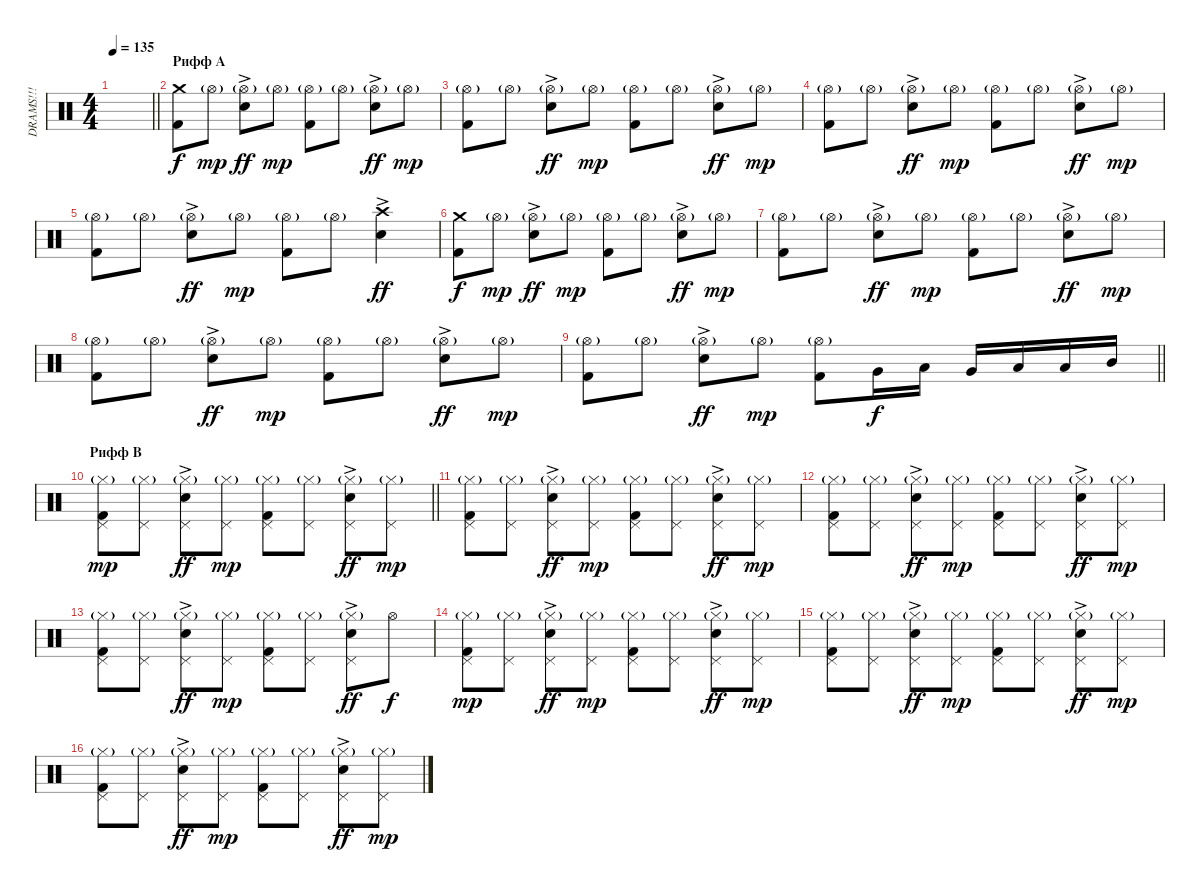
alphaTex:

\track ("DRAMS!!!" "DRAMS!!!") {instrument percussion}
\staff {score}
\articulation defaults
\ts (4 4)
\tempo 135
\clef neutral
\barLineRight lightlight
\ks c
|
\section ("" "Рифф А")
("Crash medium (hit)" "Kick (hit) 2").8 "Hi-Hat (open)"{g}.8{dy mp} ("Hi-Hat (open)"{g} "Snare (hit) 2"{ac}).8{dy ff} "Hi-Hat (open)"{g}.8{dy mp} ("Hi-Hat (open)"{g} "Kick (hit) 2").8 "Hi-Hat (open)"{g}.8 ("Hi-Hat (open)"{g} "Snare (hit) 2"{ac}).8{dy ff} "Hi-Hat (open)"{g}.8{dy mp} |
("Hi-Hat (open)"{g} "Kick (hit) 2").8 "Hi-Hat (open)"{g}.8 ("Hi-Hat (open)"{g} "Snare (hit) 2"{ac}).8{dy ff} "Hi-Hat (open)"{g}.8{dy mp} ("Hi-Hat (open)"{g} "Kick (hit) 2").8 "Hi-Hat (open)"{g}.8 ("Hi-Hat (open)"{g} "Snare (hit) 2"{ac}).8{dy ff} "Hi-Hat (open)"{g}.8{dy mp} |
("Hi-Hat (open)"{g} "Kick (hit) 2").8 "Hi-Hat (open)"{g}.8 ("Hi-Hat (open)"{g} "Snare (hit) 2"{ac}).8{dy ff} "Hi-Hat (open)"{g}.8{dy mp} ("Hi-Hat (open)"{g} "Kick (hit) 2").8 "Hi-Hat (open)"{g}.8 ("Hi-Hat (open)"{g} "Snare (hit) 2"{ac}).8{dy ff} "Hi-Hat (open)"{g}.8{dy mp} |
("Hi-Hat (open)"{g} "Kick (hit) 2").8 "Hi-Hat (open)"{g}.8 ("Hi-Hat (open)"{g} "Snare (hit) 2"{ac}).8{dy ff} "Hi-Hat (open)"{g}.8{dy mp} ("Hi-Hat (open)"{g} "Kick (hit) 2").8 "Hi-Hat (open)"{g}.8 ("Crash high (hit)" "Snare (hit) 2"{ac}).4{dy ff} |
("Crash medium (hit)" "Kick (hit) 2").8{dy f} "Hi-Hat (open)"{g}.8{dy mp} ("Hi-Hat (open)"{g} "Snare (hit) 2"{ac}).8{dy ff} "Hi-Hat (open)"{g}.8{dy mp} ("Hi-Hat (open)"{g} "Kick (hit) 2").8 "Hi-Hat (open)"{g}.8 ("Hi-Hat (open)"{g} "Snare (hit) 2"{ac}).8{dy ff} "Hi-Hat (open)"{g}.8{dy mp} |
("Hi-Hat (open)"{g} "Kick (hit) 2").8 "Hi-Hat (open)"{g}.8 ("Hi-Hat (open)"{g} "Snare (hit) 2"{ac}).8{dy ff} "Hi-Hat (open)"{g}.8{dy mp} ("Hi-Hat (open)"{g} "Kick (hit) 2").8 "Hi-Hat (open)"{g}.8 ("Hi-Hat (open)"{g} "Snare (hit) 2"{ac}).8{dy ff} "Hi-Hat (open)"{g}.8{dy mp} |
("Hi-Hat (open)"{g} "Kick (hit) 2").8 "Hi-Hat (open)"{g}.8 ("Hi-Hat (open)"{g} "Snare (hit) 2"{ac}).8{dy ff} "Hi-Hat (open)"{g}.8{dy mp} ("Hi-Hat (open)"{g} "Kick (hit) 2").8 "Hi-Hat (open)"{g}.8 ("Hi-Hat (open)"{g} "Snare (hit) 2"{ac}).8{dy ff} "Hi-Hat (open)"{g}.8{dy mp} |
\barLineRight lightlight
("Hi-Hat (open)"{g} "Kick (hit) 2").8 "Hi-Hat (open)"{g}.8 ("Hi-Hat (open)"{g} "Snare (hit) 2"{ac}).8{dy ff} "Hi-Hat (open)"{g}.8{dy mp} ("Hi-Hat (open)"{g} "Kick (hit) 2").8 "Very Low Tom (hit)".16{dy f} "Low Tom (hit)".16 "Very Low Tom (hit)".16 "Low Tom (hit)".16 "Low Tom (hit)".16 "Mid Tom (hit)".16 |
\section ("" "Рифф В")
\barLineRight lightlight
("Pedal Hi-Hat (hit)" "Hi-Hat (closed)"{g} "Kick (hit) 2").8{dy mp} ("Pedal Hi-Hat (hit)" "Hi-Hat (closed)"{g}).8 ("Pedal Hi-Hat (hit)" "Hi-Hat (closed)"{g} "Snare (hit) 2"{ac}).8{dy ff} ("Pedal Hi-Hat (hit)" "Hi-Hat (closed)"{g}).8{dy mp} ("Pedal Hi-Hat (hit)" "Hi-Hat (closed)"{g} "Kick (hit) 2").8 ("Pedal Hi-Hat (hit)" "Hi-Hat (closed)"{g}).8 ("Pedal Hi-Hat (hit)" "Hi-Hat (closed)"{g} "Snare (hit) 2"{ac}).8{dy ff} ("Pedal Hi-Hat (hit)" "Hi-Hat (closed)"{g}).8{dy mp} |
\section ("" "")
("Pedal Hi-Hat (hit)" "Hi-Hat (closed)"{g} "Kick (hit) 2").8 ("Pedal Hi-Hat (hit)" "Hi-Hat (closed)"{g}).8 ("Pedal Hi-Hat (hit)" "Hi-Hat (closed)"{g} "Snare (hit) 2"{ac}).8{dy ff} ("Pedal Hi-Hat (hit)" "Hi-Hat (closed)"{g}).8{dy mp} ("Pedal Hi-Hat (hit)" "Hi-Hat (closed)"{g} "Kick (hit) 2").8 ("Pedal Hi-Hat (hit)" "Hi-Hat (closed)"{g}).8 ("Pedal Hi-Hat (hit)" "Hi-Hat (closed)"{g} "Snare (hit) 2"{ac}).8{dy ff} ("Pedal Hi-Hat (hit)" "Hi-Hat (closed)"{g}).8{dy mp} |
("Pedal Hi-Hat (hit)" "Hi-Hat (closed)"{g} "Kick (hit) 2").8 ("Pedal Hi-Hat (hit)" "Hi-Hat (closed)"{g}).8 ("Pedal Hi-Hat (hit)" "Hi-Hat (closed)"{g} "Snare (hit) 2"{ac}).8{dy ff} ("Pedal Hi-Hat (hit)" "Hi-Hat (closed)"{g}).8{dy mp} ("Pedal Hi-Hat (hit)" "Hi-Hat (closed)"{g} "Kick (hit) 2").8 ("Pedal Hi-Hat (hit)" "Hi-Hat (closed)"{g}).8 ("Pedal Hi-Hat (hit)" "Hi-Hat (closed)"{g} "Snare (hit) 2"{ac}).8{dy ff} ("Pedal Hi-Hat (hit)" "Hi-Hat (closed)"{g}).8{dy mp} |
("Pedal Hi-Hat (hit)" "Hi-Hat (closed)"{g} "Kick (hit) 2").8 ("Pedal Hi-Hat (hit)" "Hi-Hat (closed)"{g}).8 ("Pedal Hi-Hat (hit)" "Hi-Hat (closed)"{g} "Snare (hit) 2"{ac}).8{dy ff} ("Pedal Hi-Hat (hit)" "Hi-Hat (closed)"{g}).8{dy mp} ("Pedal Hi-Hat (hit)" "Hi-Hat (closed)"{g} "Kick (hit) 2").8 ("Pedal Hi-Hat (hit)" "Hi-Hat (closed)"{g}).8 ("Pedal Hi-Hat (hit)" "Hi-Hat (closed)"{g} "Snare (hit) 2"{ac}).8{dy ff} "Hi-Hat (open)".8{dy f} |
("Pedal Hi-Hat (hit)" "Hi-Hat (closed)"{g} "Kick (hit) 2").8{dy mp} ("Pedal Hi-Hat (hit)" "Hi-Hat (closed)"{g}).8 ("Pedal Hi-Hat (hit)" "Hi-Hat (closed)"{g} "Snare (hit) 2"{ac}).8{dy ff} ("Pedal Hi-Hat (hit)" "Hi-Hat (closed)"{g}).8{dy mp} ("Pedal Hi-Hat (hit)" "Hi-Hat (closed)"{g} "Kick (hit) 2").8 ("Pedal Hi-Hat (hit)" "Hi-Hat (closed)"{g}).8 ("Pedal Hi-Hat (hit)" "Hi-Hat (closed)"{g} "Snare (hit) 2"{ac}).8{dy ff} ("Pedal Hi-Hat (hit)" "Hi-Hat (closed)"{g}).8{dy mp} |
("Pedal Hi-Hat (hit)" "Hi-Hat (closed)"{g} "Kick (hit) 2").8 ("Pedal Hi-Hat (hit)" "Hi-Hat (closed)"{g}).8 ("Pedal Hi-Hat (hit)" "Hi-Hat (closed)"{g} "Snare (hit) 2"{ac}).8{dy ff} ("Pedal Hi-Hat (hit)" "Hi-Hat (closed)"{g}).8{dy mp} ("Pedal Hi-Hat (hit)" "Hi-Hat (closed)"{g} "Kick (hit) 2").8 ("Pedal Hi-Hat (hit)" "Hi-Hat (closed)"{g}).8 ("Pedal Hi-Hat (hit)" "Hi-Hat (closed)"{g} "Snare (hit) 2"{ac}).8{dy ff} ("Pedal Hi-Hat (hit)" "Hi-Hat (closed)"{g}).8{dy mp} |
("Pedal Hi-Hat (hit)" "Hi-Hat (closed)"{g} "Kick (hit) 2").8 ("Pedal Hi-Hat (hit)" "Hi-Hat (closed)"{g}).8 ("Pedal Hi-Hat (hit)" "Hi-Hat (closed)"{g} "Snare (hit) 2"{ac}).8{dy ff} ("Pedal Hi-Hat (hit)" "Hi-Hat (closed)"{g}).8{dy mp} ("Pedal Hi-Hat (hit)" "Hi-Hat (closed)"{g} "Kick (hit) 2").8 ("Pedal Hi-Hat (hit)" "Hi-Hat (closed)"{g}).8 ("Pedal Hi-Hat (hit)" "Hi-Hat (closed)"{g} "Snare (hit) 2"{ac}).8{dy ff} ("Pedal Hi-Hat (hit)" "Hi-Hat (closed)"{g}).8{dy mp}
